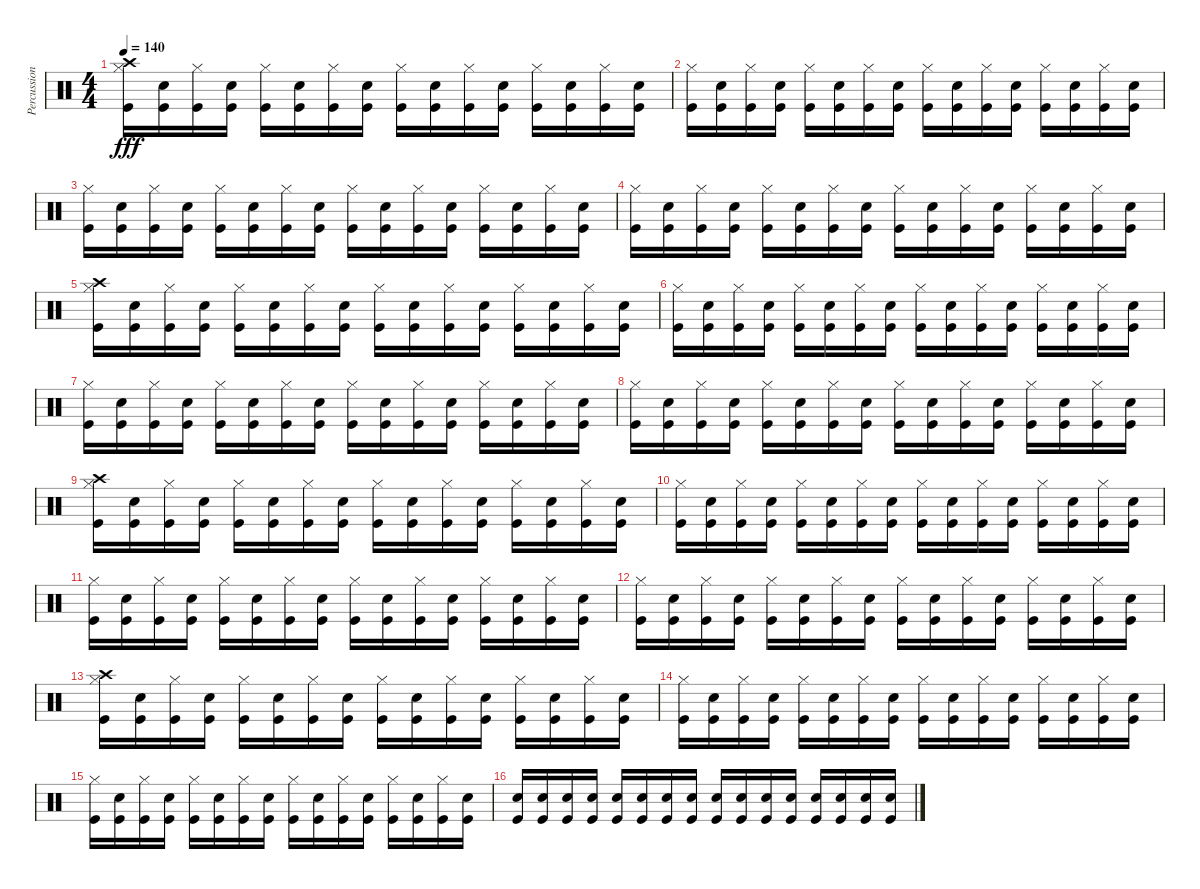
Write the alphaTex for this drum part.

\track ("Percussion" "Percussion") {instrument percussion}
\staff {score}
\articulation defaults
\ts (4 4)
\tempo 140
\clef neutral
\ks c
("Crash high (hit)" "Hi-Hat (closed)" "Kick (hit)").16{dy fff} ("Snare (hit) 2" "Kick (hit)").16 ("Hi-Hat (closed)" "Kick (hit)").16 ("Snare (hit) 2" "Kick (hit)").16 ("Hi-Hat (closed)" "Kick (hit)").16 ("Snare (hit) 2" "Kick (hit)").16 ("Hi-Hat (closed)" "Kick (hit)").16 ("Snare (hit) 2" "Kick (hit)").16 ("Hi-Hat (closed)" "Kick (hit)").16 ("Snare (hit) 2" "Kick (hit)").16 ("Hi-Hat (closed)" "Kick (hit)").16 ("Snare (hit) 2" "Kick (hit)").16 ("Hi-Hat (closed)" "Kick (hit)").16 ("Snare (hit) 2" "Kick (hit)").16 ("Hi-Hat (closed)" "Kick (hit)").16 ("Snare (hit) 2" "Kick (hit)").16 |
("Hi-Hat (closed)" "Kick (hit)").16 ("Snare (hit) 2" "Kick (hit)").16 ("Hi-Hat (closed)" "Kick (hit)").16 ("Snare (hit) 2" "Kick (hit)").16 ("Hi-Hat (closed)" "Kick (hit)").16 ("Snare (hit) 2" "Kick (hit)").16 ("Hi-Hat (closed)" "Kick (hit)").16 ("Snare (hit) 2" "Kick (hit)").16 ("Hi-Hat (closed)" "Kick (hit)").16 ("Snare (hit) 2" "Kick (hit)").16 ("Hi-Hat (closed)" "Kick (hit)").16 ("Snare (hit) 2" "Kick (hit)").16 ("Hi-Hat (closed)" "Kick (hit)").16 ("Snare (hit) 2" "Kick (hit)").16 ("Hi-Hat (closed)" "Kick (hit)").16 ("Snare (hit) 2" "Kick (hit)").16 |
("Hi-Hat (closed)" "Kick (hit)").16 ("Snare (hit) 2" "Kick (hit)").16 ("Hi-Hat (closed)" "Kick (hit)").16 ("Snare (hit) 2" "Kick (hit)").16 ("Hi-Hat (closed)" "Kick (hit)").16 ("Snare (hit) 2" "Kick (hit)").16 ("Hi-Hat (closed)" "Kick (hit)").16 ("Snare (hit) 2" "Kick (hit)").16 ("Hi-Hat (closed)" "Kick (hit)").16 ("Snare (hit) 2" "Kick (hit)").16 ("Hi-Hat (closed)" "Kick (hit)").16 ("Snare (hit) 2" "Kick (hit)").16 ("Hi-Hat (closed)" "Kick (hit)").16 ("Snare (hit) 2" "Kick (hit)").16 ("Hi-Hat (closed)" "Kick (hit)").16 ("Snare (hit) 2" "Kick (hit)").16 |
("Hi-Hat (closed)" "Kick (hit)").16 ("Snare (hit) 2" "Kick (hit)").16 ("Hi-Hat (closed)" "Kick (hit)").16 ("Snare (hit) 2" "Kick (hit)").16 ("Hi-Hat (closed)" "Kick (hit)").16 ("Snare (hit) 2" "Kick (hit)").16 ("Hi-Hat (closed)" "Kick (hit)").16 ("Snare (hit) 2" "Kick (hit)").16 ("Hi-Hat (closed)" "Kick (hit)").16 ("Snare (hit) 2" "Kick (hit)").16 ("Hi-Hat (closed)" "Kick (hit)").16 ("Snare (hit) 2" "Kick (hit)").16 ("Hi-Hat (closed)" "Kick (hit)").16 ("Snare (hit) 2" "Kick (hit)").16 ("Hi-Hat (closed)" "Kick (hit)").16 ("Snare (hit) 2" "Kick (hit)").16 |
("Crash high (hit)" "Hi-Hat (closed)" "Kick (hit)").16 ("Snare (hit) 2" "Kick (hit)").16 ("Hi-Hat (closed)" "Kick (hit)").16 ("Snare (hit) 2" "Kick (hit)").16 ("Hi-Hat (closed)" "Kick (hit)").16 ("Snare (hit) 2" "Kick (hit)").16 ("Hi-Hat (closed)" "Kick (hit)").16 ("Snare (hit) 2" "Kick (hit)").16 ("Hi-Hat (closed)" "Kick (hit)").16 ("Snare (hit) 2" "Kick (hit)").16 ("Hi-Hat (closed)" "Kick (hit)").16 ("Snare (hit) 2" "Kick (hit)").16 ("Hi-Hat (closed)" "Kick (hit)").16 ("Snare (hit) 2" "Kick (hit)").16 ("Hi-Hat (closed)" "Kick (hit)").16 ("Snare (hit) 2" "Kick (hit)").16 |
("Hi-Hat (closed)" "Kick (hit)").16 ("Snare (hit) 2" "Kick (hit)").16 ("Hi-Hat (closed)" "Kick (hit)").16 ("Snare (hit) 2" "Kick (hit)").16 ("Hi-Hat (closed)" "Kick (hit)").16 ("Snare (hit) 2" "Kick (hit)").16 ("Hi-Hat (closed)" "Kick (hit)").16 ("Snare (hit) 2" "Kick (hit)").16 ("Hi-Hat (closed)" "Kick (hit)").16 ("Snare (hit) 2" "Kick (hit)").16 ("Hi-Hat (closed)" "Kick (hit)").16 ("Snare (hit) 2" "Kick (hit)").16 ("Hi-Hat (closed)" "Kick (hit)").16 ("Snare (hit) 2" "Kick (hit)").16 ("Hi-Hat (closed)" "Kick (hit)").16 ("Snare (hit) 2" "Kick (hit)").16 |
("Hi-Hat (closed)" "Kick (hit)").16 ("Snare (hit) 2" "Kick (hit)").16 ("Hi-Hat (closed)" "Kick (hit)").16 ("Snare (hit) 2" "Kick (hit)").16 ("Hi-Hat (closed)" "Kick (hit)").16 ("Snare (hit) 2" "Kick (hit)").16 ("Hi-Hat (closed)" "Kick (hit)").16 ("Snare (hit) 2" "Kick (hit)").16 ("Hi-Hat (closed)" "Kick (hit)").16 ("Snare (hit) 2" "Kick (hit)").16 ("Hi-Hat (closed)" "Kick (hit)").16 ("Snare (hit) 2" "Kick (hit)").16 ("Hi-Hat (closed)" "Kick (hit)").16 ("Snare (hit) 2" "Kick (hit)").16 ("Hi-Hat (closed)" "Kick (hit)").16 ("Snare (hit) 2" "Kick (hit)").16 |
("Hi-Hat (closed)" "Kick (hit)").16 ("Snare (hit) 2" "Kick (hit)").16 ("Hi-Hat (closed)" "Kick (hit)").16 ("Snare (hit) 2" "Kick (hit)").16 ("Hi-Hat (closed)" "Kick (hit)").16 ("Snare (hit) 2" "Kick (hit)").16 ("Hi-Hat (closed)" "Kick (hit)").16 ("Snare (hit) 2" "Kick (hit)").16 ("Hi-Hat (closed)" "Kick (hit)").16 ("Snare (hit) 2" "Kick (hit)").16 ("Hi-Hat (closed)" "Kick (hit)").16 ("Snare (hit) 2" "Kick (hit)").16 ("Hi-Hat (closed)" "Kick (hit)").16 ("Snare (hit) 2" "Kick (hit)").16 ("Hi-Hat (closed)" "Kick (hit)").16 ("Snare (hit) 2" "Kick (hit)").16 |
("Crash high (hit)" "Hi-Hat (closed)" "Kick (hit)").16 ("Snare (hit) 2" "Kick (hit)").16 ("Hi-Hat (closed)" "Kick (hit)").16 ("Snare (hit) 2" "Kick (hit)").16 ("Hi-Hat (closed)" "Kick (hit)").16 ("Snare (hit) 2" "Kick (hit)").16 ("Hi-Hat (closed)" "Kick (hit)").16 ("Snare (hit) 2" "Kick (hit)").16 ("Hi-Hat (closed)" "Kick (hit)").16 ("Snare (hit) 2" "Kick (hit)").16 ("Hi-Hat (closed)" "Kick (hit)").16 ("Snare (hit) 2" "Kick (hit)").16 ("Hi-Hat (closed)" "Kick (hit)").16 ("Snare (hit) 2" "Kick (hit)").16 ("Hi-Hat (closed)" "Kick (hit)").16 ("Snare (hit) 2" "Kick (hit)").16 |
("Hi-Hat (closed)" "Kick (hit)").16 ("Snare (hit) 2" "Kick (hit)").16 ("Hi-Hat (closed)" "Kick (hit)").16 ("Snare (hit) 2" "Kick (hit)").16 ("Hi-Hat (closed)" "Kick (hit)").16 ("Snare (hit) 2" "Kick (hit)").16 ("Hi-Hat (closed)" "Kick (hit)").16 ("Snare (hit) 2" "Kick (hit)").16 ("Hi-Hat (closed)" "Kick (hit)").16 ("Snare (hit) 2" "Kick (hit)").16 ("Hi-Hat (closed)" "Kick (hit)").16 ("Snare (hit) 2" "Kick (hit)").16 ("Hi-Hat (closed)" "Kick (hit)").16 ("Snare (hit) 2" "Kick (hit)").16 ("Hi-Hat (closed)" "Kick (hit)").16 ("Snare (hit) 2" "Kick (hit)").16 |
("Hi-Hat (closed)" "Kick (hit)").16 ("Snare (hit) 2" "Kick (hit)").16 ("Hi-Hat (closed)" "Kick (hit)").16 ("Snare (hit) 2" "Kick (hit)").16 ("Hi-Hat (closed)" "Kick (hit)").16 ("Snare (hit) 2" "Kick (hit)").16 ("Hi-Hat (closed)" "Kick (hit)").16 ("Snare (hit) 2" "Kick (hit)").16 ("Hi-Hat (closed)" "Kick (hit)").16 ("Snare (hit) 2" "Kick (hit)").16 ("Hi-Hat (closed)" "Kick (hit)").16 ("Snare (hit) 2" "Kick (hit)").16 ("Hi-Hat (closed)" "Kick (hit)").16 ("Snare (hit) 2" "Kick (hit)").16 ("Hi-Hat (closed)" "Kick (hit)").16 ("Snare (hit) 2" "Kick (hit)").16 |
("Hi-Hat (closed)" "Kick (hit)").16 ("Snare (hit) 2" "Kick (hit)").16 ("Hi-Hat (closed)" "Kick (hit)").16 ("Snare (hit) 2" "Kick (hit)").16 ("Hi-Hat (closed)" "Kick (hit)").16 ("Snare (hit) 2" "Kick (hit)").16 ("Hi-Hat (closed)" "Kick (hit)").16 ("Snare (hit) 2" "Kick (hit)").16 ("Hi-Hat (closed)" "Kick (hit)").16 ("Snare (hit) 2" "Kick (hit)").16 ("Hi-Hat (closed)" "Kick (hit)").16 ("Snare (hit) 2" "Kick (hit)").16 ("Hi-Hat (closed)" "Kick (hit)").16 ("Snare (hit) 2" "Kick (hit)").16 ("Hi-Hat (closed)" "Kick (hit)").16 ("Snare (hit) 2" "Kick (hit)").16 |
("Crash high (hit)" "Hi-Hat (closed)" "Kick (hit)").16 ("Snare (hit) 2" "Kick (hit)").16 ("Hi-Hat (closed)" "Kick (hit)").16 ("Snare (hit) 2" "Kick (hit)").16 ("Hi-Hat (closed)" "Kick (hit)").16 ("Snare (hit) 2" "Kick (hit)").16 ("Hi-Hat (closed)" "Kick (hit)").16 ("Snare (hit) 2" "Kick (hit)").16 ("Hi-Hat (closed)" "Kick (hit)").16 ("Snare (hit) 2" "Kick (hit)").16 ("Hi-Hat (closed)" "Kick (hit)").16 ("Snare (hit) 2" "Kick (hit)").16 ("Hi-Hat (closed)" "Kick (hit)").16 ("Snare (hit) 2" "Kick (hit)").16 ("Hi-Hat (closed)" "Kick (hit)").16 ("Snare (hit) 2" "Kick (hit)").16 |
("Hi-Hat (closed)" "Kick (hit)").16 ("Snare (hit) 2" "Kick (hit)").16 ("Hi-Hat (closed)" "Kick (hit)").16 ("Snare (hit) 2" "Kick (hit)").16 ("Hi-Hat (closed)" "Kick (hit)").16 ("Snare (hit) 2" "Kick (hit)").16 ("Hi-Hat (closed)" "Kick (hit)").16 ("Snare (hit) 2" "Kick (hit)").16 ("Hi-Hat (closed)" "Kick (hit)").16 ("Snare (hit) 2" "Kick (hit)").16 ("Hi-Hat (closed)" "Kick (hit)").16 ("Snare (hit) 2" "Kick (hit)").16 ("Hi-Hat (closed)" "Kick (hit)").16 ("Snare (hit) 2" "Kick (hit)").16 ("Hi-Hat (closed)" "Kick (hit)").16 ("Snare (hit) 2" "Kick (hit)").16 |
("Hi-Hat (closed)" "Kick (hit)").16 ("Snare (hit) 2" "Kick (hit)").16 ("Hi-Hat (closed)" "Kick (hit)").16 ("Snare (hit) 2" "Kick (hit)").16 ("Hi-Hat (closed)" "Kick (hit)").16 ("Snare (hit) 2" "Kick (hit)").16 ("Hi-Hat (closed)" "Kick (hit)").16 ("Snare (hit) 2" "Kick (hit)").16 ("Hi-Hat (closed)" "Kick (hit)").16 ("Snare (hit) 2" "Kick (hit)").16 ("Hi-Hat (closed)" "Kick (hit)").16 ("Snare (hit) 2" "Kick (hit)").16 ("Hi-Hat (closed)" "Kick (hit)").16 ("Snare (hit) 2" "Kick (hit)").16 ("Hi-Hat (closed)" "Kick (hit)").16 ("Snare (hit) 2" "Kick (hit)").16 |
("Snare (hit) 2" "Kick (hit)").16 ("Snare (hit) 2" "Kick (hit)").16 ("Snare (hit) 2" "Kick (hit)").16 ("Snare (hit) 2" "Kick (hit)").16 ("Snare (hit) 2" "Kick (hit)").16 ("Snare (hit) 2" "Kick (hit)").16 ("Snare (hit) 2" "Kick (hit)").16 ("Snare (hit) 2" "Kick (hit)").16 ("Snare (hit) 2" "Kick (hit)").16 ("Snare (hit) 2" "Kick (hit)").16 ("Snare (hit) 2" "Kick (hit)").16 ("Snare (hit) 2" "Kick (hit)").16 ("Snare (hit) 2" "Kick (hit)").16 ("Snare (hit) 2" "Kick (hit)").16 ("Snare (hit) 2" "Kick (hit)").16 ("Snare (hit) 2" "Kick (hit)").16
